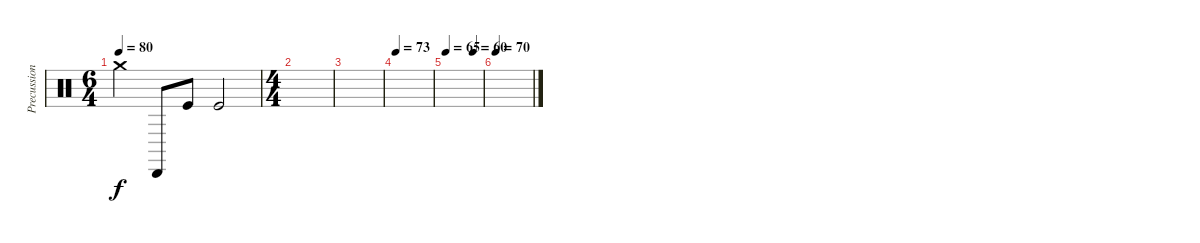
\track ("Precussion" "Precussion") {instrument percussion}
\staff {score}
\articulation defaults
\ts (6 4)
\tempo 80
\clef neutral
\ks c "Crash medium (hit)".4{dy f} "Cabasa (hit)".8 "Kick (hit)".8 "Kick (hit)".2
|
\ts (4 4)
|
|
\tempo 73
|
\tempo 65
\tempo (60 0.75)
|
\tempo 70
